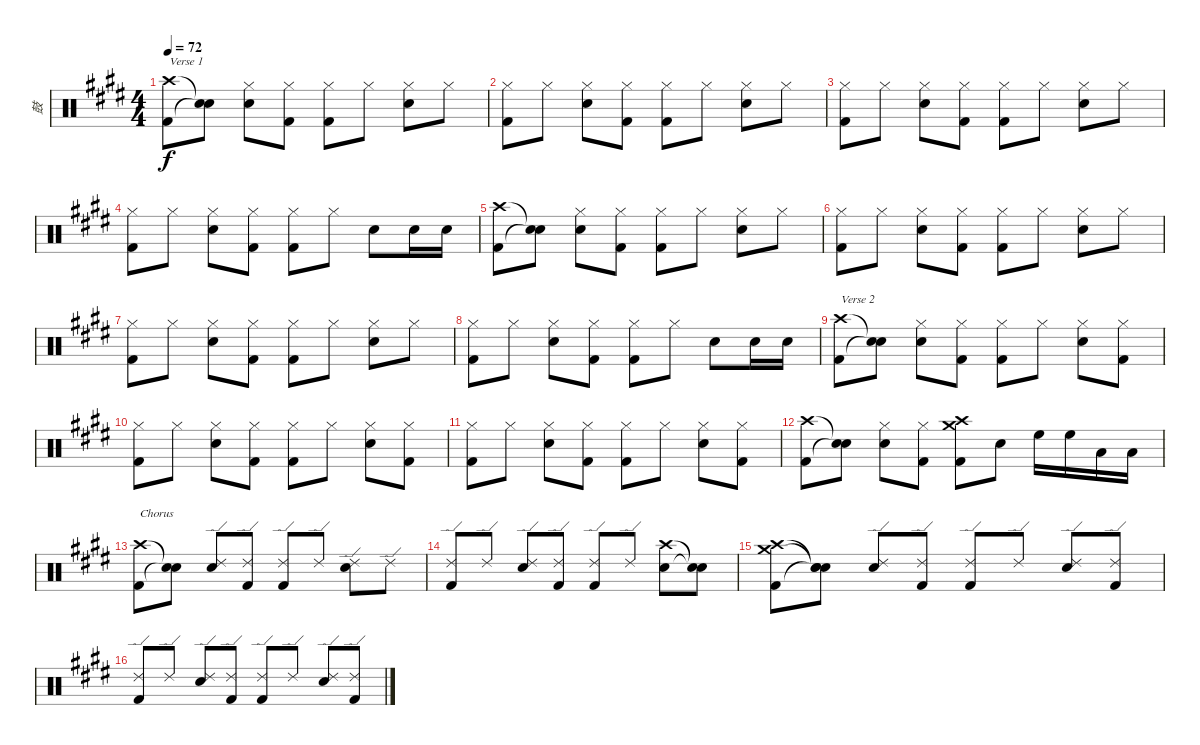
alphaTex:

\track ("鼓" "鼓") {instrument percussion}
\staff {score}
\articulation defaults
\ts (4 4)
\tempo 72
\clef neutral
\ks e
("Crash high (hit)" "Kick (hit) 2").8{txt "Verse 1" dy f} ("Snare (hit)"{t} "Snare (hit)"{t}).8 ("Hi-Hat (closed)" "Electric Snare (hit)").8 ("Hi-Hat (closed)" "Kick (hit) 2").8 ("Hi-Hat (closed)" "Kick (hit) 2").8 "Hi-Hat (closed)".8 ("Hi-Hat (closed)" "Electric Snare (hit)").8 "Hi-Hat (closed)".8 |
("Hi-Hat (closed)" "Kick (hit) 2").8 "Hi-Hat (closed)".8 ("Hi-Hat (closed)" "Electric Snare (hit)").8 ("Hi-Hat (closed)" "Kick (hit) 2").8 ("Hi-Hat (closed)" "Kick (hit) 2").8 "Hi-Hat (closed)".8 ("Hi-Hat (closed)" "Electric Snare (hit)").8 "Hi-Hat (closed)".8 |
("Hi-Hat (closed)" "Kick (hit) 2").8 "Hi-Hat (closed)".8 ("Hi-Hat (closed)" "Electric Snare (hit)").8 ("Hi-Hat (closed)" "Kick (hit) 2").8 ("Hi-Hat (closed)" "Kick (hit) 2").8 "Hi-Hat (closed)".8 ("Hi-Hat (closed)" "Electric Snare (hit)").8 "Hi-Hat (closed)".8 |
("Hi-Hat (closed)" "Kick (hit) 2").8 "Hi-Hat (closed)".8 ("Hi-Hat (closed)" "Electric Snare (hit)").8 ("Hi-Hat (closed)" "Kick (hit) 2").8 ("Hi-Hat (closed)" "Kick (hit) 2").8 "Hi-Hat (closed)".8 "Electric Snare (hit)".8 "Electric Snare (hit)".16 "Electric Snare (hit)".16 |
("Crash high (hit)" "Kick (hit) 2").8 ("Snare (hit)"{t} "Snare (hit)"{t}).8 ("Hi-Hat (closed)" "Electric Snare (hit)").8 ("Hi-Hat (closed)" "Kick (hit) 2").8 ("Hi-Hat (closed)" "Kick (hit) 2").8 "Hi-Hat (closed)".8 ("Hi-Hat (closed)" "Electric Snare (hit)").8 "Hi-Hat (closed)".8 |
("Hi-Hat (closed)" "Kick (hit) 2").8 "Hi-Hat (closed)".8 ("Hi-Hat (closed)" "Electric Snare (hit)").8 ("Hi-Hat (closed)" "Kick (hit) 2").8 ("Hi-Hat (closed)" "Kick (hit) 2").8 "Hi-Hat (closed)".8 ("Hi-Hat (closed)" "Electric Snare (hit)").8 "Hi-Hat (closed)".8 |
("Hi-Hat (closed)" "Kick (hit) 2").8 "Hi-Hat (closed)".8 ("Hi-Hat (closed)" "Electric Snare (hit)").8 ("Hi-Hat (closed)" "Kick (hit) 2").8 ("Hi-Hat (closed)" "Kick (hit) 2").8 "Hi-Hat (closed)".8 ("Hi-Hat (closed)" "Electric Snare (hit)").8 "Hi-Hat (closed)".8 |
("Hi-Hat (closed)" "Kick (hit) 2").8 "Hi-Hat (closed)".8 ("Hi-Hat (closed)" "Electric Snare (hit)").8 ("Hi-Hat (closed)" "Kick (hit) 2").8 ("Hi-Hat (closed)" "Kick (hit) 2").8 "Hi-Hat (closed)".8 "Electric Snare (hit)".8 "Electric Snare (hit)".16 "Electric Snare (hit)".16 |
("Crash high (hit)" "Kick (hit) 2").8{txt "Verse 2"} ("Snare (hit)"{t} "Snare (hit)"{t}).8 ("Hi-Hat (closed)" "Electric Snare (hit)").8 ("Hi-Hat (closed)" "Kick (hit) 2").8 ("Hi-Hat (closed)" "Kick (hit) 2").8 "Hi-Hat (closed)".8 ("Hi-Hat (closed)" "Electric Snare (hit)").8 ("Hi-Hat (closed)" "Kick (hit) 2").8 |
("Hi-Hat (closed)" "Kick (hit) 2").8 "Hi-Hat (closed)".8 ("Hi-Hat (closed)" "Electric Snare (hit)").8 ("Hi-Hat (closed)" "Kick (hit) 2").8 ("Hi-Hat (closed)" "Kick (hit) 2").8 "Hi-Hat (closed)".8 ("Hi-Hat (closed)" "Electric Snare (hit)").8 ("Hi-Hat (closed)" "Kick (hit) 2").8 |
("Hi-Hat (closed)" "Kick (hit) 2").8 "Hi-Hat (closed)".8 ("Hi-Hat (closed)" "Electric Snare (hit)").8 ("Hi-Hat (closed)" "Kick (hit) 2").8 ("Hi-Hat (closed)" "Kick (hit) 2").8 "Hi-Hat (closed)".8 ("Hi-Hat (closed)" "Electric Snare (hit)").8 ("Hi-Hat (closed)" "Kick (hit) 2").8 |
("Crash high (hit)" "Kick (hit) 2").8 ("Snare (hit)"{t} "Snare (hit)"{t}).8 ("Hi-Hat (closed)" "Electric Snare (hit)").8 ("Hi-Hat (closed)" "Kick (hit) 2").8 ("Crash high (hit)" "Crash medium (hit)" "Kick (hit) 2").8 "Electric Snare (hit)".8 "High Floor Tom (hit)".16 "High Floor Tom (hit)".16 "Low Tom (hit)".16 "Low Tom (hit)".16 |
("Crash high (hit)" "Kick (hit) 2").8{txt "Chorus"} ("Snare (hit)"{t} "Snare (hit)"{t}).8 ("Ride (edge) 2" "Electric Snare (hit)").8 ("Ride (edge) 2" "Kick (hit) 2").8 ("Ride (edge) 2" "Kick (hit) 2").8 "Ride (edge) 2".8 ("Ride (edge) 2" "Electric Snare (hit)").8 "Ride (edge) 2".8 |
("Ride (edge) 2" "Kick (hit) 2").8 "Ride (edge) 2".8 ("Ride (edge) 2" "Electric Snare (hit)").8 ("Ride (edge) 2" "Kick (hit) 2").8 ("Ride (edge) 2" "Kick (hit) 2").8 "Ride (edge) 2".8 ("Crash high (hit)" "Electric Snare (hit)").8 ("Snare (hit)"{t} "Snare (hit)"{t}).8 |
("Crash high (hit)" "Crash medium (hit)" "Kick (hit) 2").8 ("Snare (hit)"{t} "Snare (hit)"{t} "Snare (hit)"{t}).8 ("Ride (edge) 2" "Electric Snare (hit)").8 ("Ride (edge) 2" "Kick (hit) 2").8 ("Ride (edge) 2" "Kick (hit) 2").8 "Ride (edge) 2".8 ("Ride (edge) 2" "Electric Snare (hit)").8 ("Ride (edge) 2" "Kick (hit) 2").8 |
("Ride (edge) 2" "Kick (hit) 2").8 "Ride (edge) 2".8 ("Ride (edge) 2" "Electric Snare (hit)").8 ("Ride (edge) 2" "Kick (hit) 2").8 ("Ride (edge) 2" "Kick (hit) 2").8 "Ride (edge) 2".8 ("Ride (edge) 2" "Electric Snare (hit)").8 ("Ride (edge) 2" "Kick (hit) 2").8
